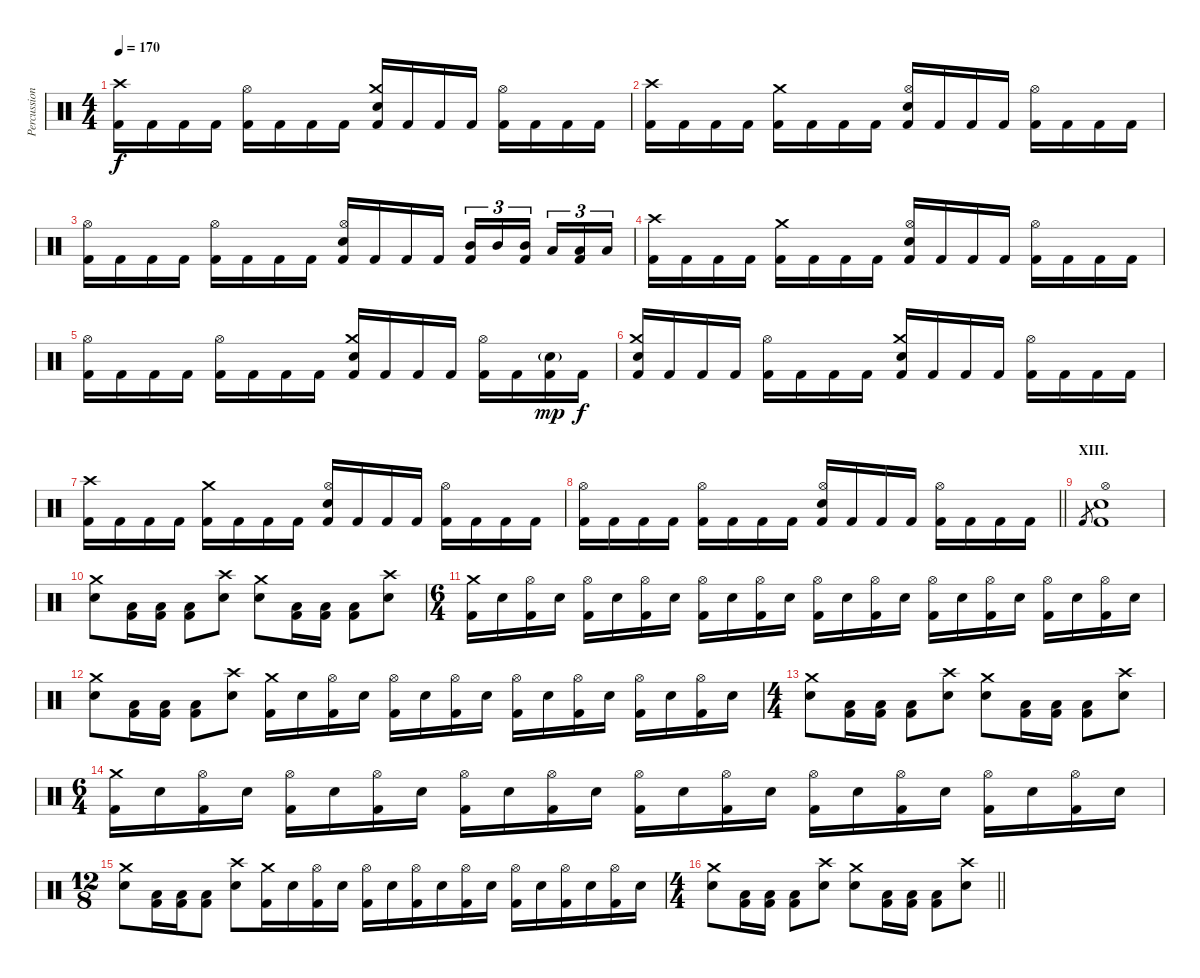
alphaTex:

\track ("Percussion" "Percussion") {instrument percussion}
\staff {score}
\articulation defaults
\ts (4 4)
\tempo 170
\clef neutral
\ks c
("Crash high (hit)" "Kick (hit) 2").16{dy f} "Kick (hit) 2".16 "Kick (hit) 2".16 "Kick (hit) 2".16 ("Hi-Hat (open)" "Kick (hit) 2").16 "Kick (hit) 2".16 "Kick (hit) 2".16 "Kick (hit) 2".16 ("Crash medium (hit)" "Electric Snare (hit)" "Kick (hit) 2").16 "Kick (hit) 2".16 "Kick (hit) 2".16 "Kick (hit) 2".16 ("Hi-Hat (open)" "Kick (hit) 2").16 "Kick (hit) 2".16 "Kick (hit) 2".16 "Kick (hit) 2".16 |
("Crash high (hit)" "Kick (hit) 2").16 "Kick (hit) 2".16 "Kick (hit) 2".16 "Kick (hit) 2".16 ("Crash medium (hit)" "Kick (hit) 2").16 "Kick (hit) 2".16 "Kick (hit) 2".16 "Kick (hit) 2".16 ("Hi-Hat (open)" "Electric Snare (hit)" "Kick (hit) 2").16 "Kick (hit) 2".16 "Kick (hit) 2".16 "Kick (hit) 2".16 ("Hi-Hat (open)" "Kick (hit) 2").16 "Kick (hit) 2".16 "Kick (hit) 2".16 "Kick (hit) 2".16 |
("Hi-Hat (open)" "Kick (hit) 2").16 "Kick (hit) 2".16 "Kick (hit) 2".16 "Kick (hit) 2".16 ("Hi-Hat (open)" "Kick (hit) 2").16 "Kick (hit) 2".16 "Kick (hit) 2".16 "Kick (hit) 2".16 ("Hi-Hat (open)" "Electric Snare (hit)" "Kick (hit) 2").16 "Kick (hit) 2".16 "Kick (hit) 2".16 "Kick (hit) 2".16 ("Mid Tom (hit)" "Kick (hit) 2").16{tu (3 2)} "Mid Tom (hit)".16{tu (3 2)} ("Mid Tom (hit)" "Kick (hit) 2").16{tu (3 2) beam splitsecondary} "Low Tom (hit)".16{tu (3 2)} ("Low Tom (hit)" "Kick (hit) 2").16{tu (3 2)} "Low Tom (hit)".16{tu (3 2)} |
("Crash high (hit)" "Kick (hit) 2").16 "Kick (hit) 2".16 "Kick (hit) 2".16 "Kick (hit) 2".16 ("Crash medium (hit)" "Kick (hit) 2").16 "Kick (hit) 2".16 "Kick (hit) 2".16 "Kick (hit) 2".16 ("Hi-Hat (open)" "Electric Snare (hit)" "Kick (hit) 2").16 "Kick (hit) 2".16 "Kick (hit) 2".16 "Kick (hit) 2".16 ("Hi-Hat (open)" "Kick (hit) 2").16 "Kick (hit) 2".16 "Kick (hit) 2".16 "Kick (hit) 2".16 |
("Hi-Hat (open)" "Kick (hit) 2").16 "Kick (hit) 2".16 "Kick (hit) 2".16 "Kick (hit) 2".16 ("Hi-Hat (open)" "Kick (hit) 2").16 "Kick (hit) 2".16 "Kick (hit) 2".16 "Kick (hit) 2".16 ("Crash medium (hit)" "Electric Snare (hit)" "Kick (hit) 2").16 "Kick (hit) 2".16 "Kick (hit) 2".16 "Kick (hit) 2".16 ("Hi-Hat (open)" "Kick (hit) 2").16 "Kick (hit) 2".16 ("Electric Snare (hit)"{g} "Kick (hit) 2").16{dy mp} "Kick (hit) 2".16{dy f} |
("Crash medium (hit)" "Electric Snare (hit)" "Kick (hit) 2").16 "Kick (hit) 2".16 "Kick (hit) 2".16 "Kick (hit) 2".16 ("Hi-Hat (open)" "Kick (hit) 2").16 "Kick (hit) 2".16 "Kick (hit) 2".16 "Kick (hit) 2".16 ("Crash medium (hit)" "Electric Snare (hit)" "Kick (hit) 2").16 "Kick (hit) 2".16 "Kick (hit) 2".16 "Kick (hit) 2".16 ("Hi-Hat (open)" "Kick (hit) 2").16 "Kick (hit) 2".16 "Kick (hit) 2".16 "Kick (hit) 2".16 |
("Crash high (hit)" "Kick (hit) 2").16 "Kick (hit) 2".16 "Kick (hit) 2".16 "Kick (hit) 2".16 ("Crash medium (hit)" "Kick (hit) 2").16 "Kick (hit) 2".16 "Kick (hit) 2".16 "Kick (hit) 2".16 ("Hi-Hat (open)" "Electric Snare (hit)" "Kick (hit) 2").16 "Kick (hit) 2".16 "Kick (hit) 2".16 "Kick (hit) 2".16 ("Hi-Hat (open)" "Kick (hit) 2").16 "Kick (hit) 2".16 "Kick (hit) 2".16 "Kick (hit) 2".16 |
\barLineRight lightlight
("Hi-Hat (open)" "Kick (hit) 2").16 "Kick (hit) 2".16 "Kick (hit) 2".16 "Kick (hit) 2".16 ("Hi-Hat (open)" "Kick (hit) 2").16 "Kick (hit) 2".16 "Kick (hit) 2".16 "Kick (hit) 2".16 ("Hi-Hat (open)" "Electric Snare (hit)" "Kick (hit) 2").16 "Kick (hit) 2".16 "Kick (hit) 2".16 "Kick (hit) 2".16 ("Hi-Hat (open)" "Kick (hit) 2").16 "Kick (hit) 2".16 "Kick (hit) 2".16 "Kick (hit) 2".16 |
\section ("" "XIII.")
"Kick (hit) 2".8{gr} ("Hi-Hat (open)" "Electric Snare (hit)" "Kick (hit) 2").1 |
("Crash medium (hit)" "Electric Snare (hit)").8 ("Low Tom (hit)" "Kick (hit) 2").16 ("Low Tom (hit)" "Kick (hit) 2").16 ("Low Floor Tom (hit)" "Kick (hit) 2").8 ("Crash high (hit)" "Electric Snare (hit)").8 ("Crash medium (hit)" "Electric Snare (hit)").8 ("Low Tom (hit)" "Kick (hit) 2").16 ("Low Tom (hit)" "Kick (hit) 2").16 ("Low Floor Tom (hit)" "Kick (hit) 2").8 ("Crash high (hit)" "Electric Snare (hit)").8 |
\ts (6 4)
("Crash medium (hit)" "Kick (hit) 2").16 "Electric Snare (hit)".16 ("Hi-Hat (open)" "Kick (hit) 2").16 "Electric Snare (hit)".16 ("Hi-Hat (open)" "Kick (hit) 2").16 "Electric Snare (hit)".16 ("Hi-Hat (open)" "Kick (hit) 2").16 "Electric Snare (hit)".16 ("Hi-Hat (open)" "Kick (hit) 2").16 "Electric Snare (hit)".16 ("Hi-Hat (open)" "Kick (hit) 2").16 "Electric Snare (hit)".16 ("Hi-Hat (open)" "Kick (hit) 2").16 "Electric Snare (hit)".16 ("Hi-Hat (open)" "Kick (hit) 2").16 "Electric Snare (hit)".16 ("Hi-Hat (open)" "Kick (hit) 2").16 "Electric Snare (hit)".16 ("Hi-Hat (open)" "Kick (hit) 2").16 "Electric Snare (hit)".16 ("Hi-Hat (open)" "Kick (hit) 2").16 "Electric Snare (hit)".16 ("Hi-Hat (open)" "Kick (hit) 2").16 "Electric Snare (hit)".16 |
("Crash medium (hit)" "Electric Snare (hit)").8 ("Low Tom (hit)" "Kick (hit) 2").16 ("Low Tom (hit)" "Kick (hit) 2").16 ("Low Floor Tom (hit)" "Kick (hit) 2").8 ("Crash high (hit)" "Electric Snare (hit)").8 ("Crash medium (hit)" "Kick (hit) 2").16 "Electric Snare (hit)".16 ("Hi-Hat (open)" "Kick (hit) 2").16 "Electric Snare (hit)".16 ("Hi-Hat (open)" "Kick (hit) 2").16 "Electric Snare (hit)".16 ("Hi-Hat (open)" "Kick (hit) 2").16 "Electric Snare (hit)".16 ("Hi-Hat (open)" "Kick (hit) 2").16 "Electric Snare (hit)".16 ("Hi-Hat (open)" "Kick (hit) 2").16 "Electric Snare (hit)".16 ("Hi-Hat (open)" "Kick (hit) 2").16 "Electric Snare (hit)".16 ("Hi-Hat (open)" "Kick (hit) 2").16 "Electric Snare (hit)".16 |
\ts (4 4)
("Crash medium (hit)" "Electric Snare (hit)").8 ("Low Tom (hit)" "Kick (hit) 2").16 ("Low Tom (hit)" "Kick (hit) 2").16 ("Low Floor Tom (hit)" "Kick (hit) 2").8 ("Crash high (hit)" "Electric Snare (hit)").8 ("Crash medium (hit)" "Electric Snare (hit)").8 ("Low Tom (hit)" "Kick (hit) 2").16 ("Low Tom (hit)" "Kick (hit) 2").16 ("Low Floor Tom (hit)" "Kick (hit) 2").8 ("Crash high (hit)" "Electric Snare (hit)").8 |
\ts (6 4)
("Crash medium (hit)" "Kick (hit) 2").16 "Electric Snare (hit)".16 ("Hi-Hat (open)" "Kick (hit) 2").16 "Electric Snare (hit)".16 ("Hi-Hat (open)" "Kick (hit) 2").16 "Electric Snare (hit)".16 ("Hi-Hat (open)" "Kick (hit) 2").16 "Electric Snare (hit)".16 ("Hi-Hat (open)" "Kick (hit) 2").16 "Electric Snare (hit)".16 ("Hi-Hat (open)" "Kick (hit) 2").16 "Electric Snare (hit)".16 ("Hi-Hat (open)" "Kick (hit) 2").16 "Electric Snare (hit)".16 ("Hi-Hat (open)" "Kick (hit) 2").16 "Electric Snare (hit)".16 ("Hi-Hat (open)" "Kick (hit) 2").16 "Electric Snare (hit)".16 ("Hi-Hat (open)" "Kick (hit) 2").16 "Electric Snare (hit)".16 ("Hi-Hat (open)" "Kick (hit) 2").16 "Electric Snare (hit)".16 ("Hi-Hat (open)" "Kick (hit) 2").16 "Electric Snare (hit)".16 |
\ts (12 8)
("Crash medium (hit)" "Electric Snare (hit)").8 ("Low Tom (hit)" "Kick (hit) 2").16 ("Low Tom (hit)" "Kick (hit) 2").16 ("Low Floor Tom (hit)" "Kick (hit) 2").8 ("Crash high (hit)" "Electric Snare (hit)").8 ("Crash medium (hit)" "Kick (hit) 2").16 "Electric Snare (hit)".16 ("Hi-Hat (open)" "Kick (hit) 2").16 "Electric Snare (hit)".16 ("Hi-Hat (open)" "Kick (hit) 2").16 "Electric Snare (hit)".16 ("Hi-Hat (open)" "Kick (hit) 2").16 "Electric Snare (hit)".16 ("Hi-Hat (open)" "Kick (hit) 2").16 "Electric Snare (hit)".16 ("Hi-Hat (open)" "Kick (hit) 2").16 "Electric Snare (hit)".16 ("Hi-Hat (open)" "Kick (hit) 2").16 "Electric Snare (hit)".16 ("Hi-Hat (open)" "Kick (hit) 2").16 "Electric Snare (hit)".16 |
\ts (4 4)
\barLineRight lightlight
("Crash medium (hit)" "Electric Snare (hit)").8 ("Low Tom (hit)" "Kick (hit) 2").16 ("Low Tom (hit)" "Kick (hit) 2").16 ("Low Floor Tom (hit)" "Kick (hit) 2").8 ("Crash high (hit)" "Electric Snare (hit)").8 ("Crash medium (hit)" "Electric Snare (hit)").8 ("Low Tom (hit)" "Kick (hit) 2").16 ("Low Tom (hit)" "Kick (hit) 2").16 ("Low Floor Tom (hit)" "Kick (hit) 2").8 ("Crash high (hit)" "Electric Snare (hit)").8
